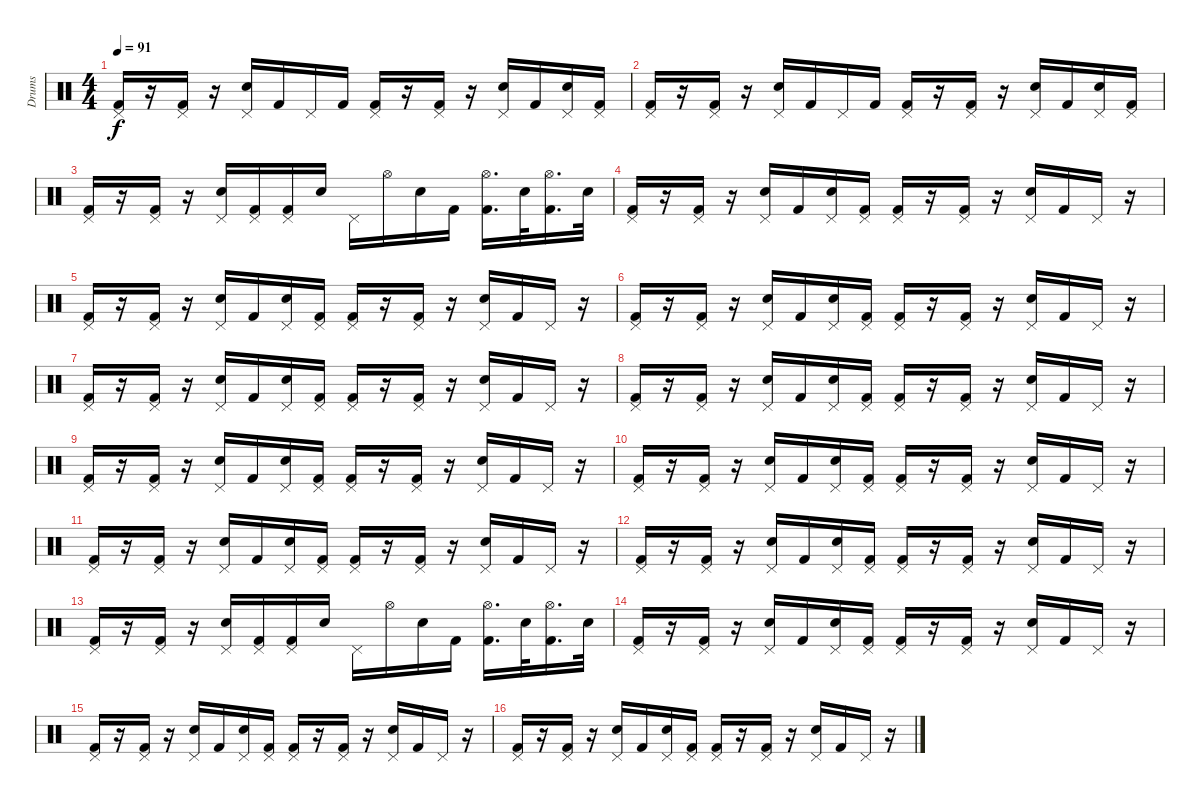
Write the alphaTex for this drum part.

\track ("Drums" "Drums") {instrument percussion}
\staff {score}
\articulation defaults
\ts (4 4)
\tempo 91
\clef neutral
\ks c
("Pedal Hi-Hat (hit)" "Kick (hit) 2").16{dy f} r.16 ("Pedal Hi-Hat (hit)" "Kick (hit) 2").16 r.16 ("Pedal Hi-Hat (hit)" "Snare (hit) 2").16 "Kick (hit) 2".16 "Pedal Hi-Hat (hit)".16 "Kick (hit) 2".16 ("Pedal Hi-Hat (hit)" "Kick (hit) 2").16 r.16 ("Pedal Hi-Hat (hit)" "Kick (hit) 2").16 r.16 ("Pedal Hi-Hat (hit)" "Snare (hit) 2").16 "Kick (hit) 2".16 ("Pedal Hi-Hat (hit)" "Snare (hit) 2").16 ("Pedal Hi-Hat (hit)" "Kick (hit) 2").16 |
("Pedal Hi-Hat (hit)" "Kick (hit) 2").16 r.16 ("Pedal Hi-Hat (hit)" "Kick (hit) 2").16 r.16 ("Pedal Hi-Hat (hit)" "Snare (hit) 2").16 "Kick (hit) 2".16 "Pedal Hi-Hat (hit)".16 "Kick (hit) 2".16 ("Pedal Hi-Hat (hit)" "Kick (hit) 2").16 r.16 ("Pedal Hi-Hat (hit)" "Kick (hit) 2").16 r.16 ("Pedal Hi-Hat (hit)" "Snare (hit) 2").16 "Kick (hit) 2".16 ("Pedal Hi-Hat (hit)" "Snare (hit) 2").16 ("Pedal Hi-Hat (hit)" "Kick (hit) 2").16 |
("Pedal Hi-Hat (hit)" "Kick (hit) 2").16 r.16 ("Pedal Hi-Hat (hit)" "Kick (hit) 2").16 r.16 ("Pedal Hi-Hat (hit)" "Snare (hit) 2").16 ("Pedal Hi-Hat (hit)" "Kick (hit) 2").16 ("Pedal Hi-Hat (hit)" "Kick (hit) 2").16 "Snare (hit) 2".16 "Pedal Hi-Hat (hit)".16 "Hi-Hat (open)".16 "Snare (hit) 2".16 "Kick (hit) 2".16 ("Hi-Hat (open)" "Kick (hit) 2").16{d} "Snare (hit) 2".32 ("Hi-Hat (open)" "Kick (hit) 2").16{d} "Snare (hit) 2".32 |
("Pedal Hi-Hat (hit)" "Kick (hit) 2").16 r.16 ("Pedal Hi-Hat (hit)" "Kick (hit) 2").16 r.16 ("Pedal Hi-Hat (hit)" "Snare (hit) 2").16 "Kick (hit) 2".16 ("Pedal Hi-Hat (hit)" "Snare (hit) 2").16 ("Pedal Hi-Hat (hit)" "Kick (hit) 2").16 ("Pedal Hi-Hat (hit)" "Kick (hit) 2").16 r.16 ("Pedal Hi-Hat (hit)" "Kick (hit) 2").16 r.16 ("Pedal Hi-Hat (hit)" "Snare (hit) 2").16 "Kick (hit) 2".16 "Pedal Hi-Hat (hit)".16 r.16 |
("Pedal Hi-Hat (hit)" "Kick (hit) 2").16 r.16 ("Pedal Hi-Hat (hit)" "Kick (hit) 2").16 r.16 ("Pedal Hi-Hat (hit)" "Snare (hit) 2").16 "Kick (hit) 2".16 ("Pedal Hi-Hat (hit)" "Snare (hit) 2").16 ("Pedal Hi-Hat (hit)" "Kick (hit) 2").16 ("Pedal Hi-Hat (hit)" "Kick (hit) 2").16 r.16 ("Pedal Hi-Hat (hit)" "Kick (hit) 2").16 r.16 ("Pedal Hi-Hat (hit)" "Snare (hit) 2").16 "Kick (hit) 2".16 "Pedal Hi-Hat (hit)".16 r.16 |
("Pedal Hi-Hat (hit)" "Kick (hit) 2").16 r.16 ("Pedal Hi-Hat (hit)" "Kick (hit) 2").16 r.16 ("Pedal Hi-Hat (hit)" "Snare (hit) 2").16 "Kick (hit) 2".16 ("Pedal Hi-Hat (hit)" "Snare (hit) 2").16 ("Pedal Hi-Hat (hit)" "Kick (hit) 2").16 ("Pedal Hi-Hat (hit)" "Kick (hit) 2").16 r.16 ("Pedal Hi-Hat (hit)" "Kick (hit) 2").16 r.16 ("Pedal Hi-Hat (hit)" "Snare (hit) 2").16 "Kick (hit) 2".16 "Pedal Hi-Hat (hit)".16 r.16 |
("Pedal Hi-Hat (hit)" "Kick (hit) 2").16 r.16 ("Pedal Hi-Hat (hit)" "Kick (hit) 2").16 r.16 ("Pedal Hi-Hat (hit)" "Snare (hit) 2").16 "Kick (hit) 2".16 ("Pedal Hi-Hat (hit)" "Snare (hit) 2").16 ("Pedal Hi-Hat (hit)" "Kick (hit) 2").16 ("Pedal Hi-Hat (hit)" "Kick (hit) 2").16 r.16 ("Pedal Hi-Hat (hit)" "Kick (hit) 2").16 r.16 ("Pedal Hi-Hat (hit)" "Snare (hit) 2").16 "Kick (hit) 2".16 "Pedal Hi-Hat (hit)".16 r.16 |
("Pedal Hi-Hat (hit)" "Kick (hit) 2").16 r.16 ("Pedal Hi-Hat (hit)" "Kick (hit) 2").16 r.16 ("Pedal Hi-Hat (hit)" "Snare (hit) 2").16 "Kick (hit) 2".16 ("Pedal Hi-Hat (hit)" "Snare (hit) 2").16 ("Pedal Hi-Hat (hit)" "Kick (hit) 2").16 ("Pedal Hi-Hat (hit)" "Kick (hit) 2").16 r.16 ("Pedal Hi-Hat (hit)" "Kick (hit) 2").16 r.16 ("Pedal Hi-Hat (hit)" "Snare (hit) 2").16 "Kick (hit) 2".16 "Pedal Hi-Hat (hit)".16 r.16 |
("Pedal Hi-Hat (hit)" "Kick (hit) 2").16 r.16 ("Pedal Hi-Hat (hit)" "Kick (hit) 2").16 r.16 ("Pedal Hi-Hat (hit)" "Snare (hit) 2").16 "Kick (hit) 2".16 ("Pedal Hi-Hat (hit)" "Snare (hit) 2").16 ("Pedal Hi-Hat (hit)" "Kick (hit) 2").16 ("Pedal Hi-Hat (hit)" "Kick (hit) 2").16 r.16 ("Pedal Hi-Hat (hit)" "Kick (hit) 2").16 r.16 ("Pedal Hi-Hat (hit)" "Snare (hit) 2").16 "Kick (hit) 2".16 "Pedal Hi-Hat (hit)".16 r.16 |
("Pedal Hi-Hat (hit)" "Kick (hit) 2").16 r.16 ("Pedal Hi-Hat (hit)" "Kick (hit) 2").16 r.16 ("Pedal Hi-Hat (hit)" "Snare (hit) 2").16 "Kick (hit) 2".16 ("Pedal Hi-Hat (hit)" "Snare (hit) 2").16 ("Pedal Hi-Hat (hit)" "Kick (hit) 2").16 ("Pedal Hi-Hat (hit)" "Kick (hit) 2").16 r.16 ("Pedal Hi-Hat (hit)" "Kick (hit) 2").16 r.16 ("Pedal Hi-Hat (hit)" "Snare (hit) 2").16 "Kick (hit) 2".16 "Pedal Hi-Hat (hit)".16 r.16 |
("Pedal Hi-Hat (hit)" "Kick (hit) 2").16 r.16 ("Pedal Hi-Hat (hit)" "Kick (hit) 2").16 r.16 ("Pedal Hi-Hat (hit)" "Snare (hit) 2").16 "Kick (hit) 2".16 ("Pedal Hi-Hat (hit)" "Snare (hit) 2").16 ("Pedal Hi-Hat (hit)" "Kick (hit) 2").16 ("Pedal Hi-Hat (hit)" "Kick (hit) 2").16 r.16 ("Pedal Hi-Hat (hit)" "Kick (hit) 2").16 r.16 ("Pedal Hi-Hat (hit)" "Snare (hit) 2").16 "Kick (hit) 2".16 "Pedal Hi-Hat (hit)".16 r.16 |
("Pedal Hi-Hat (hit)" "Kick (hit) 2").16 r.16 ("Pedal Hi-Hat (hit)" "Kick (hit) 2").16 r.16 ("Pedal Hi-Hat (hit)" "Snare (hit) 2").16 "Kick (hit) 2".16 ("Pedal Hi-Hat (hit)" "Snare (hit) 2").16 ("Pedal Hi-Hat (hit)" "Kick (hit) 2").16 ("Pedal Hi-Hat (hit)" "Kick (hit) 2").16 r.16 ("Pedal Hi-Hat (hit)" "Kick (hit) 2").16 r.16 ("Pedal Hi-Hat (hit)" "Snare (hit) 2").16 "Kick (hit) 2".16 "Pedal Hi-Hat (hit)".16 r.16 |
("Pedal Hi-Hat (hit)" "Kick (hit) 2").16 r.16 ("Pedal Hi-Hat (hit)" "Kick (hit) 2").16 r.16 ("Pedal Hi-Hat (hit)" "Snare (hit) 2").16 ("Pedal Hi-Hat (hit)" "Kick (hit) 2").16 ("Pedal Hi-Hat (hit)" "Kick (hit) 2").16 "Snare (hit) 2".16 "Pedal Hi-Hat (hit)".16 "Hi-Hat (open)".16 "Snare (hit) 2".16 "Kick (hit) 2".16 ("Hi-Hat (open)" "Kick (hit) 2").16{d} "Snare (hit) 2".32 ("Hi-Hat (open)" "Kick (hit) 2").16{d} "Snare (hit) 2".32 |
("Pedal Hi-Hat (hit)" "Kick (hit) 2").16 r.16 ("Pedal Hi-Hat (hit)" "Kick (hit) 2").16 r.16 ("Pedal Hi-Hat (hit)" "Snare (hit) 2").16 "Kick (hit) 2".16 ("Pedal Hi-Hat (hit)" "Snare (hit) 2").16 ("Pedal Hi-Hat (hit)" "Kick (hit) 2").16 ("Pedal Hi-Hat (hit)" "Kick (hit) 2").16 r.16 ("Pedal Hi-Hat (hit)" "Kick (hit) 2").16 r.16 ("Pedal Hi-Hat (hit)" "Snare (hit) 2").16 "Kick (hit) 2".16 "Pedal Hi-Hat (hit)".16 r.16 |
("Pedal Hi-Hat (hit)" "Kick (hit) 2").16 r.16 ("Pedal Hi-Hat (hit)" "Kick (hit) 2").16 r.16 ("Pedal Hi-Hat (hit)" "Snare (hit) 2").16 "Kick (hit) 2".16 ("Pedal Hi-Hat (hit)" "Snare (hit) 2").16 ("Pedal Hi-Hat (hit)" "Kick (hit) 2").16 ("Pedal Hi-Hat (hit)" "Kick (hit) 2").16 r.16 ("Pedal Hi-Hat (hit)" "Kick (hit) 2").16 r.16 ("Pedal Hi-Hat (hit)" "Snare (hit) 2").16 "Kick (hit) 2".16 "Pedal Hi-Hat (hit)".16 r.16 |
("Pedal Hi-Hat (hit)" "Kick (hit) 2").16 r.16 ("Pedal Hi-Hat (hit)" "Kick (hit) 2").16 r.16 ("Pedal Hi-Hat (hit)" "Snare (hit) 2").16 "Kick (hit) 2".16 ("Pedal Hi-Hat (hit)" "Snare (hit) 2").16 ("Pedal Hi-Hat (hit)" "Kick (hit) 2").16 ("Pedal Hi-Hat (hit)" "Kick (hit) 2").16 r.16 ("Pedal Hi-Hat (hit)" "Kick (hit) 2").16 r.16 ("Pedal Hi-Hat (hit)" "Snare (hit) 2").16 "Kick (hit) 2".16 "Pedal Hi-Hat (hit)".16 r.16
